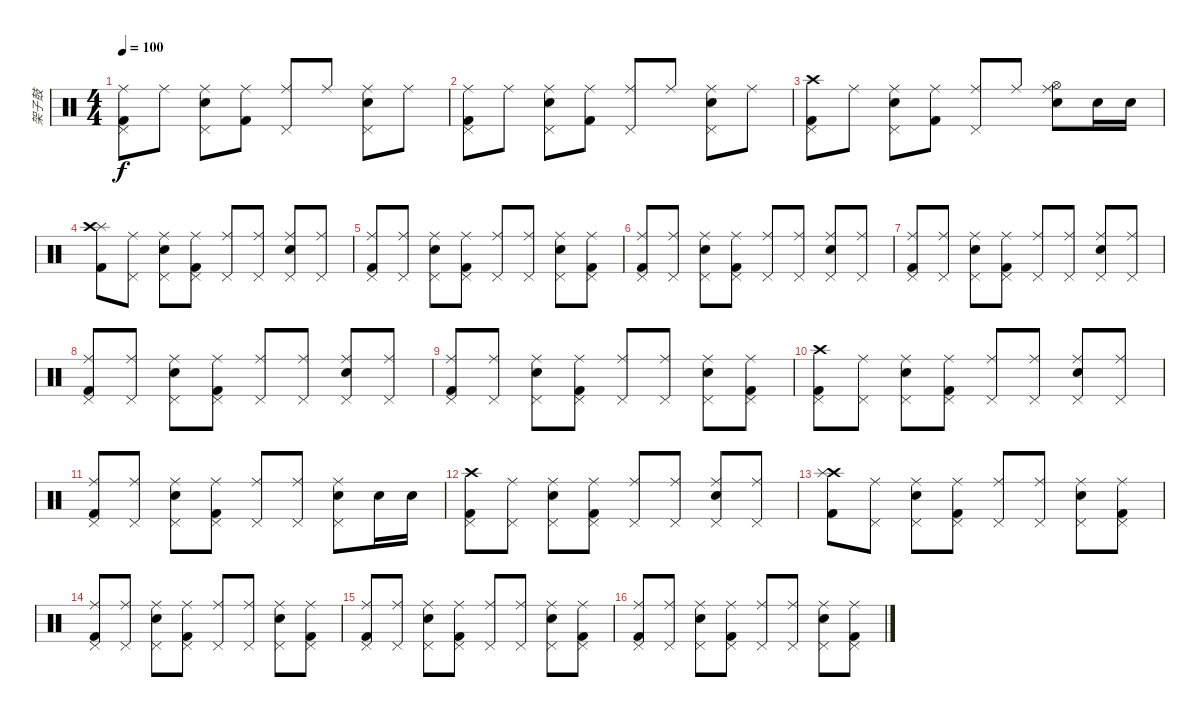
\track ("架子鼓" "架子鼓") {instrument percussion}
\staff {score}
\articulation defaults
\ts (4 4)
\tempo 100
\clef neutral
\ks c
("Ride (middle)" "Pedal Hi-Hat (hit)" "Kick (hit) 2").8{dy f} "Ride (middle)".8 ("Ride (middle)" "Pedal Hi-Hat (hit)" "Snare (hit) 2").8 ("Ride (middle)" "Kick (hit) 2").8 ("Ride (middle)" "Pedal Hi-Hat (hit)").8 "Ride (middle)".8 ("Ride (middle)" "Pedal Hi-Hat (hit)" "Snare (hit) 2").8 "Ride (middle)".8 |
("Ride (middle)" "Pedal Hi-Hat (hit)" "Kick (hit) 2").8 "Ride (middle)".8 ("Ride (middle)" "Pedal Hi-Hat (hit)" "Snare (hit) 2").8 ("Ride (middle)" "Kick (hit) 2").8 ("Ride (middle)" "Pedal Hi-Hat (hit)").8 "Ride (middle)".8 ("Ride (middle)" "Pedal Hi-Hat (hit)" "Snare (hit) 2").8 "Ride (middle)".8 |
("Crash high (hit)" "Pedal Hi-Hat (hit)" "Kick (hit) 2").8 "Ride (middle)".8 ("Ride (middle)" "Pedal Hi-Hat (hit)" "Snare (hit) 2").8 ("Ride (middle)" "Kick (hit) 2").8 ("Ride (middle)" "Pedal Hi-Hat (hit)").8 "Ride (middle)".8 ("Ride (middle)" "Hi-Hat (open)" "Snare (hit) 2").8 "Snare (hit) 2".16 "Snare (hit) 2".16 |
("Splash (hit)" "Crash high (hit)" "Kick (hit) 2").8 ("Ride (middle)" "Pedal Hi-Hat (hit)").8 ("Ride (middle)" "Pedal Hi-Hat (hit)" "Snare (hit) 2").8 ("Ride (middle)" "Pedal Hi-Hat (hit)" "Kick (hit) 2").8 ("Ride (middle)" "Pedal Hi-Hat (hit)").8 ("Ride (middle)" "Pedal Hi-Hat (hit)").8 ("Ride (middle)" "Pedal Hi-Hat (hit)" "Snare (hit) 2").8 ("Ride (middle)" "Pedal Hi-Hat (hit)").8 |
("Ride (middle)" "Pedal Hi-Hat (hit)" "Kick (hit) 2").8 ("Ride (middle)" "Pedal Hi-Hat (hit)").8 ("Ride (middle)" "Pedal Hi-Hat (hit)" "Snare (hit) 2").8 ("Ride (middle)" "Pedal Hi-Hat (hit)" "Kick (hit) 2").8 ("Ride (middle)" "Pedal Hi-Hat (hit)").8 ("Ride (middle)" "Pedal Hi-Hat (hit)").8 ("Ride (middle)" "Pedal Hi-Hat (hit)" "Snare (hit) 2").8 ("Ride (middle)" "Pedal Hi-Hat (hit)" "Kick (hit) 2").8 |
("Ride (middle)" "Pedal Hi-Hat (hit)" "Kick (hit) 2").8 ("Ride (middle)" "Pedal Hi-Hat (hit)").8 ("Ride (middle)" "Pedal Hi-Hat (hit)" "Snare (hit) 2").8 ("Ride (middle)" "Pedal Hi-Hat (hit)" "Kick (hit) 2").8 ("Ride (middle)" "Pedal Hi-Hat (hit)").8 ("Ride (middle)" "Pedal Hi-Hat (hit)").8 ("Ride (middle)" "Pedal Hi-Hat (hit)" "Snare (hit) 2").8 ("Ride (middle)" "Pedal Hi-Hat (hit)").8 |
("Ride (middle)" "Pedal Hi-Hat (hit)" "Kick (hit) 2").8 ("Ride (middle)" "Pedal Hi-Hat (hit)").8 ("Ride (middle)" "Pedal Hi-Hat (hit)" "Snare (hit) 2").8 ("Ride (middle)" "Pedal Hi-Hat (hit)" "Kick (hit) 2").8 ("Ride (middle)" "Pedal Hi-Hat (hit)").8 ("Ride (middle)" "Pedal Hi-Hat (hit)").8 ("Ride (middle)" "Pedal Hi-Hat (hit)" "Snare (hit) 2").8 ("Ride (middle)" "Pedal Hi-Hat (hit)").8 |
("Ride (middle)" "Pedal Hi-Hat (hit)" "Kick (hit) 2").8 ("Ride (middle)" "Pedal Hi-Hat (hit)").8 ("Ride (middle)" "Pedal Hi-Hat (hit)" "Snare (hit) 2").8 ("Ride (middle)" "Pedal Hi-Hat (hit)" "Kick (hit) 2").8 ("Ride (middle)" "Pedal Hi-Hat (hit)").8 ("Ride (middle)" "Pedal Hi-Hat (hit)").8 ("Ride (middle)" "Pedal Hi-Hat (hit)" "Snare (hit) 2").8 ("Ride (middle)" "Pedal Hi-Hat (hit)").8 |
("Ride (middle)" "Pedal Hi-Hat (hit)" "Kick (hit) 2").8 ("Ride (middle)" "Pedal Hi-Hat (hit)").8 ("Ride (middle)" "Pedal Hi-Hat (hit)" "Snare (hit) 2").8 ("Ride (middle)" "Pedal Hi-Hat (hit)" "Kick (hit) 2").8 ("Ride (middle)" "Pedal Hi-Hat (hit)").8 ("Ride (middle)" "Pedal Hi-Hat (hit)").8 ("Ride (middle)" "Pedal Hi-Hat (hit)" "Snare (hit) 2").8 ("Ride (middle)" "Pedal Hi-Hat (hit)" "Kick (hit) 2").8 |
("Crash high (hit)" "Pedal Hi-Hat (hit)" "Kick (hit) 2").8 ("Ride (middle)" "Pedal Hi-Hat (hit)").8 ("Ride (middle)" "Pedal Hi-Hat (hit)" "Snare (hit) 2").8 ("Ride (middle)" "Pedal Hi-Hat (hit)" "Kick (hit) 2").8 ("Ride (middle)" "Pedal Hi-Hat (hit)").8 ("Ride (middle)" "Pedal Hi-Hat (hit)").8 ("Ride (middle)" "Pedal Hi-Hat (hit)" "Snare (hit) 2").8 ("Ride (middle)" "Pedal Hi-Hat (hit)").8 |
("Ride (middle)" "Pedal Hi-Hat (hit)" "Kick (hit) 2").8 ("Ride (middle)" "Pedal Hi-Hat (hit)").8 ("Ride (middle)" "Pedal Hi-Hat (hit)" "Snare (hit) 2").8 ("Ride (middle)" "Pedal Hi-Hat (hit)" "Kick (hit) 2").8 ("Ride (middle)" "Pedal Hi-Hat (hit)").8 ("Ride (middle)" "Pedal Hi-Hat (hit)").8 ("Ride (middle)" "Pedal Hi-Hat (hit)" "Snare (hit) 2").8 "Snare (hit) 2".16 "Snare (hit) 2".16 |
("Crash high (hit)" "Pedal Hi-Hat (hit)" "Kick (hit) 2").8 ("Ride (middle)" "Pedal Hi-Hat (hit)").8 ("Ride (middle)" "Pedal Hi-Hat (hit)" "Snare (hit) 2").8 ("Ride (middle)" "Pedal Hi-Hat (hit)" "Kick (hit) 2").8 ("Ride (middle)" "Pedal Hi-Hat (hit)").8 ("Ride (middle)" "Pedal Hi-Hat (hit)").8 ("Ride (middle)" "Pedal Hi-Hat (hit)" "Snare (hit) 2").8 ("Ride (middle)" "Pedal Hi-Hat (hit)").8 |
("Crash high (hit)" "Splash (hit)" "Kick (hit) 2").8 ("Ride (middle)" "Pedal Hi-Hat (hit)").8 ("Ride (middle)" "Pedal Hi-Hat (hit)" "Snare (hit) 2").8 ("Ride (middle)" "Pedal Hi-Hat (hit)" "Kick (hit) 2").8 ("Ride (middle)" "Pedal Hi-Hat (hit)").8 ("Ride (middle)" "Pedal Hi-Hat (hit)").8 ("Ride (middle)" "Pedal Hi-Hat (hit)" "Snare (hit) 2").8 ("Ride (middle)" "Pedal Hi-Hat (hit)" "Kick (hit) 2").8 |
("Ride (middle)" "Pedal Hi-Hat (hit)" "Kick (hit) 2").8 ("Ride (middle)" "Pedal Hi-Hat (hit)").8 ("Ride (middle)" "Pedal Hi-Hat (hit)" "Snare (hit) 2").8 ("Ride (middle)" "Pedal Hi-Hat (hit)" "Kick (hit) 2").8 ("Ride (middle)" "Pedal Hi-Hat (hit)").8 ("Ride (middle)" "Pedal Hi-Hat (hit)").8 ("Ride (middle)" "Pedal Hi-Hat (hit)" "Snare (hit) 2").8 ("Ride (middle)" "Pedal Hi-Hat (hit)" "Kick (hit) 2").8 |
("Ride (middle)" "Pedal Hi-Hat (hit)" "Kick (hit) 2").8 ("Ride (middle)" "Pedal Hi-Hat (hit)").8 ("Ride (middle)" "Pedal Hi-Hat (hit)" "Snare (hit) 2").8 ("Ride (middle)" "Pedal Hi-Hat (hit)" "Kick (hit) 2").8 ("Ride (middle)" "Pedal Hi-Hat (hit)").8 ("Ride (middle)" "Pedal Hi-Hat (hit)").8 ("Ride (middle)" "Pedal Hi-Hat (hit)" "Snare (hit) 2").8 ("Ride (middle)" "Pedal Hi-Hat (hit)" "Kick (hit) 2").8 |
("Ride (middle)" "Pedal Hi-Hat (hit)" "Kick (hit) 2").8 ("Ride (middle)" "Pedal Hi-Hat (hit)").8 ("Ride (middle)" "Pedal Hi-Hat (hit)" "Snare (hit) 2").8 ("Ride (middle)" "Pedal Hi-Hat (hit)" "Kick (hit) 2").8 ("Ride (middle)" "Pedal Hi-Hat (hit)").8 ("Ride (middle)" "Pedal Hi-Hat (hit)").8 ("Ride (middle)" "Pedal Hi-Hat (hit)" "Snare (hit) 2").8 ("Ride (middle)" "Pedal Hi-Hat (hit)" "Kick (hit) 2").8
